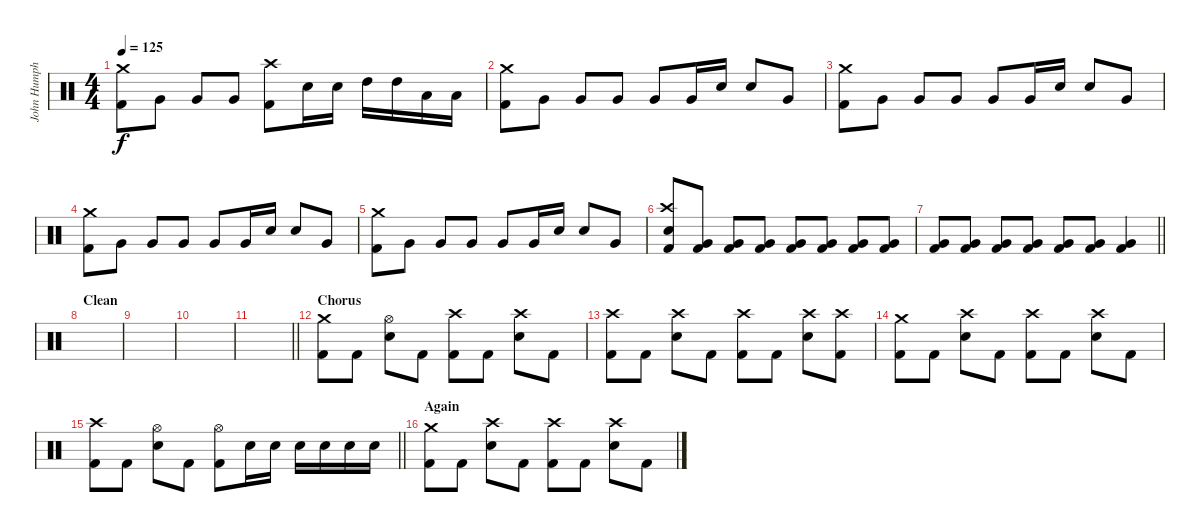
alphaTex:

\track ("John Humphrey - Drums" "John Humph") {instrument percussion}
\staff {score}
\articulation defaults
\ts (4 4)
\tempo 125
\clef neutral
\ks c
("Crash medium (hit)" "Kick (hit) 2").8{dy f} "Very Low Tom (hit)".8 "Very Low Tom (hit)".8 "Very Low Tom (hit)".8 ("Crash high (hit)" "Kick (hit) 2").8 "Electric Snare (hit)".16 "Electric Snare (hit)".16 "High Tom (hit)".16 "High Tom (hit)".16 "Low Tom (hit)".16 "Low Tom (hit)".16 |
("Crash medium (hit)" "Kick (hit) 2").8 "Very Low Tom (hit)".8 "Very Low Tom (hit)".8 "Very Low Tom (hit)".8 "Very Low Tom (hit)".8 "Very Low Tom (hit)".16 "Electric Snare (hit)".16 "Electric Snare (hit)".8 "Very Low Tom (hit)".8 |
("Crash medium (hit)" "Kick (hit) 2").8 "Very Low Tom (hit)".8 "Very Low Tom (hit)".8 "Very Low Tom (hit)".8 "Very Low Tom (hit)".8 "Very Low Tom (hit)".16 "Electric Snare (hit)".16 "Electric Snare (hit)".8 "Very Low Tom (hit)".8 |
("Crash medium (hit)" "Kick (hit) 2").8 "Very Low Tom (hit)".8 "Very Low Tom (hit)".8 "Very Low Tom (hit)".8 "Very Low Tom (hit)".8 "Very Low Tom (hit)".16 "Electric Snare (hit)".16 "Electric Snare (hit)".8 "Very Low Tom (hit)".8 |
("Crash medium (hit)" "Kick (hit) 2").8 "Very Low Tom (hit)".8 "Very Low Tom (hit)".8 "Very Low Tom (hit)".8 "Very Low Tom (hit)".8 "Very Low Tom (hit)".16 "Electric Snare (hit)".16 "Electric Snare (hit)".8 "Very Low Tom (hit)".8 |
("Crash high (hit)" "Electric Snare (hit)" "Kick (hit) 2").8 ("Very Low Tom (hit)" "Kick (hit) 2").8 ("Very Low Tom (hit)" "Kick (hit) 2").8 ("Very Low Tom (hit)" "Kick (hit) 2").8 ("Very Low Tom (hit)" "Kick (hit) 2").8 ("Very Low Tom (hit)" "Kick (hit) 2").8 ("Very Low Tom (hit)" "Kick (hit) 2").8 ("Very Low Tom (hit)" "Kick (hit) 2").8 |
\barLineRight lightlight
("Very Low Tom (hit)" "Kick (hit) 2").8 ("Very Low Tom (hit)" "Kick (hit) 2").8 ("Very Low Tom (hit)" "Kick (hit) 2").8 ("Very Low Tom (hit)" "Kick (hit) 2").8 ("Very Low Tom (hit)" "Kick (hit) 2").8 ("Very Low Tom (hit)" "Kick (hit) 2").8 ("Very Low Tom (hit)" "Kick (hit) 2").4 |
\section ("" "Clean")
|
|
|
\barLineRight lightlight
|
\section ("" "Chorus")
("Crash medium (hit)" "Kick (hit) 2").8 "Kick (hit) 2".8 ("Hi-Hat (open)" "Electric Snare (hit)").8 "Kick (hit) 2".8 ("Crash high (hit)" "Kick (hit) 2").8 "Kick (hit) 2".8 ("Crash high (hit)" "Electric Snare (hit)").8 "Kick (hit) 2".8 |
("Crash high (hit)" "Kick (hit) 2").8 "Kick (hit) 2".8 ("Crash high (hit)" "Electric Snare (hit)").8 "Kick (hit) 2".8 ("Crash high (hit)" "Kick (hit) 2").8 "Kick (hit) 2".8 ("Crash high (hit)" "Electric Snare (hit)").8 ("Crash high (hit)" "Kick (hit) 2").8 |
("Crash medium (hit)" "Kick (hit) 2").8 "Kick (hit) 2".8 ("Crash high (hit)" "Electric Snare (hit)").8 "Kick (hit) 2".8 ("Crash high (hit)" "Kick (hit) 2").8 "Kick (hit) 2".8 ("Crash high (hit)" "Electric Snare (hit)").8 "Kick (hit) 2".8 |
\barLineRight lightlight
("Crash high (hit)" "Kick (hit) 2").8 "Kick (hit) 2".8 ("Hi-Hat (open)" "Electric Snare (hit)").8 "Kick (hit) 2".8 ("Hi-Hat (open)" "Kick (hit) 2").8 "Electric Snare (hit)".16 "Electric Snare (hit)".16 "Electric Snare (hit)".16 "Electric Snare (hit)".16 "Electric Snare (hit)".16 "Electric Snare (hit)".16 |
\section ("" "Again")
("Crash medium (hit)" "Kick (hit) 2").8 "Kick (hit) 2".8 ("Crash high (hit)" "Electric Snare (hit)").8 "Kick (hit) 2".8 ("Crash high (hit)" "Kick (hit) 2").8 "Kick (hit) 2".8 ("Crash high (hit)" "Electric Snare (hit)").8 "Kick (hit) 2".8
